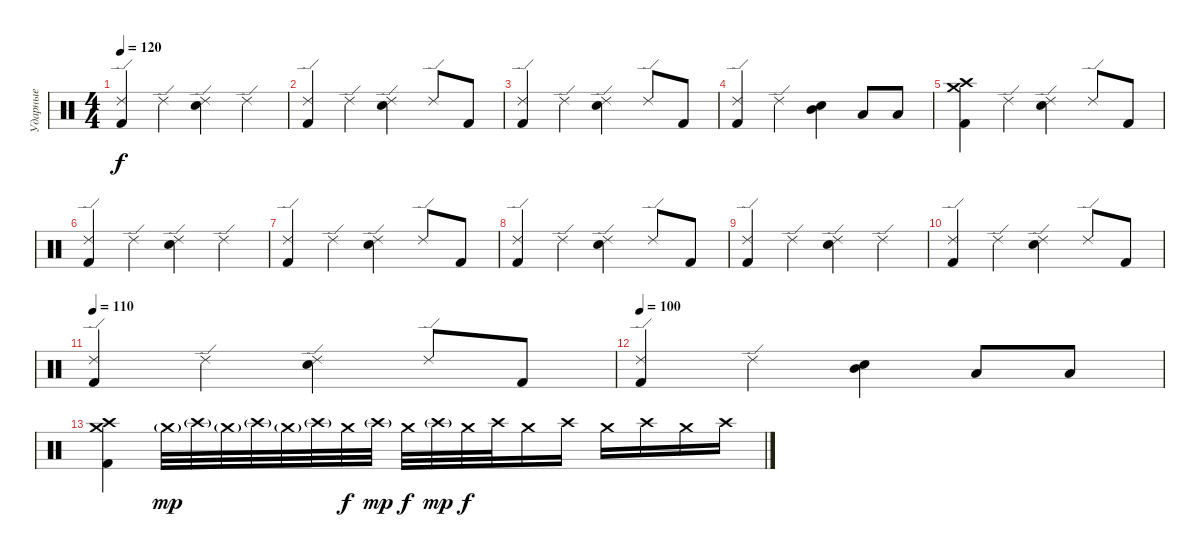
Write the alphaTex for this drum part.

\track ("Ударные" "Ударные") {instrument percussion}
\staff {score}
\articulation defaults
\ts (4 4)
\tempo 120
\clef neutral
\ks c
("Kick (hit) 2" "Ride (edge) 2").4{dy f} "Ride (edge) 2".4 ("Electric Snare (hit)" "Ride (edge) 2").4 "Ride (edge) 2".4 |
("Kick (hit) 2" "Ride (edge) 2").4 "Ride (edge) 2".4 ("Electric Snare (hit)" "Ride (edge) 2").4 "Ride (edge) 2".8 "Kick (hit) 2".8 |
("Kick (hit) 2" "Ride (edge) 2").4 "Ride (edge) 2".4 ("Electric Snare (hit)" "Ride (edge) 2").4 "Ride (edge) 2".8 "Kick (hit) 2".8 |
("Kick (hit) 2" "Ride (edge) 2").4 "Ride (edge) 2".4 ("Mid Tom (hit)" "Electric Snare (hit)").4 "Low Tom (hit)".8 "Low Tom (hit)".8 |
("Kick (hit) 2" "Crash medium (hit)" "Crash high (hit)").4 "Ride (edge) 2".4 ("Electric Snare (hit)" "Ride (edge) 2").4 "Ride (edge) 2".8 "Kick (hit) 2".8 |
("Kick (hit) 2" "Ride (edge) 2").4 "Ride (edge) 2".4 ("Electric Snare (hit)" "Ride (edge) 2").4 "Ride (edge) 2".4 |
("Kick (hit) 2" "Ride (edge) 2").4 "Ride (edge) 2".4 ("Electric Snare (hit)" "Ride (edge) 2").4 "Ride (edge) 2".8 "Kick (hit) 2".8 |
("Kick (hit) 2" "Ride (edge) 2").4 "Ride (edge) 2".4 ("Electric Snare (hit)" "Ride (edge) 2").4 "Ride (edge) 2".8 "Kick (hit) 2".8 |
("Kick (hit) 2" "Ride (edge) 2").4 "Ride (edge) 2".4 ("Electric Snare (hit)" "Ride (edge) 2").4 "Ride (edge) 2".4 |
("Kick (hit) 2" "Ride (edge) 2").4 "Ride (edge) 2".4 ("Electric Snare (hit)" "Ride (edge) 2").4 "Ride (edge) 2".8 "Kick (hit) 2".8 |
\tempo 110
("Kick (hit) 2" "Ride (edge) 2").4 "Ride (edge) 2".4 ("Electric Snare (hit)" "Ride (edge) 2").4 "Ride (edge) 2".8 "Kick (hit) 2".8 |
\tempo 100
("Kick (hit) 2" "Ride (edge) 2").4 "Ride (edge) 2".4 ("Mid Tom (hit)" "Electric Snare (hit)").4 "Low Tom (hit)".8 "Low Tom (hit)".8 |
("Kick (hit) 2" "Crash medium (hit)" "Crash high (hit)").4 "Crash medium (hit)"{g}.32{dy mp} "Crash high (hit)"{g}.32 "Crash medium (hit)"{g}.32 "Crash high (hit)"{g}.32 "Crash medium (hit)"{g}.32 "Crash high (hit)"{g}.32 "Crash medium (hit)".32{dy f} "Crash high (hit)"{g}.32{dy mp} "Crash medium (hit)".32{dy f} "Crash high (hit)"{g}.32{dy mp} "Crash medium (hit)".32{dy f} "Crash high (hit)".32 "Crash medium (hit)".16 "Crash high (hit)".16 "Crash medium (hit)".16 "Crash high (hit)".16 "Crash medium (hit)".16 "Crash high (hit)".16
